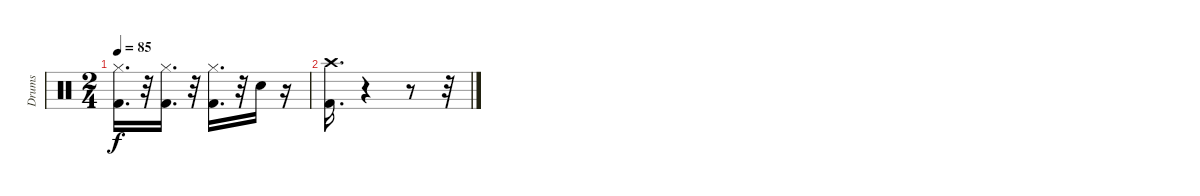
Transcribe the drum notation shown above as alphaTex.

\track ("Drums" "Drums") {instrument percussion}
\staff {score}
\articulation defaults
\ts (2 4)
\tempo 85
\clef neutral
\ks c
("Kick (hit) 2" "Hi-Hat (closed)").16{d dy f} r.32 ("Hi-Hat (closed)" "Kick (hit) 2").16{d} r.32 ("Kick (hit) 2" "Hi-Hat (closed)").16{d} r.32 "Snare (hit) 2".16 r.16 |
("Crash high (hit)" "Kick (hit) 2").16{d} r.4 r.8 r.32
